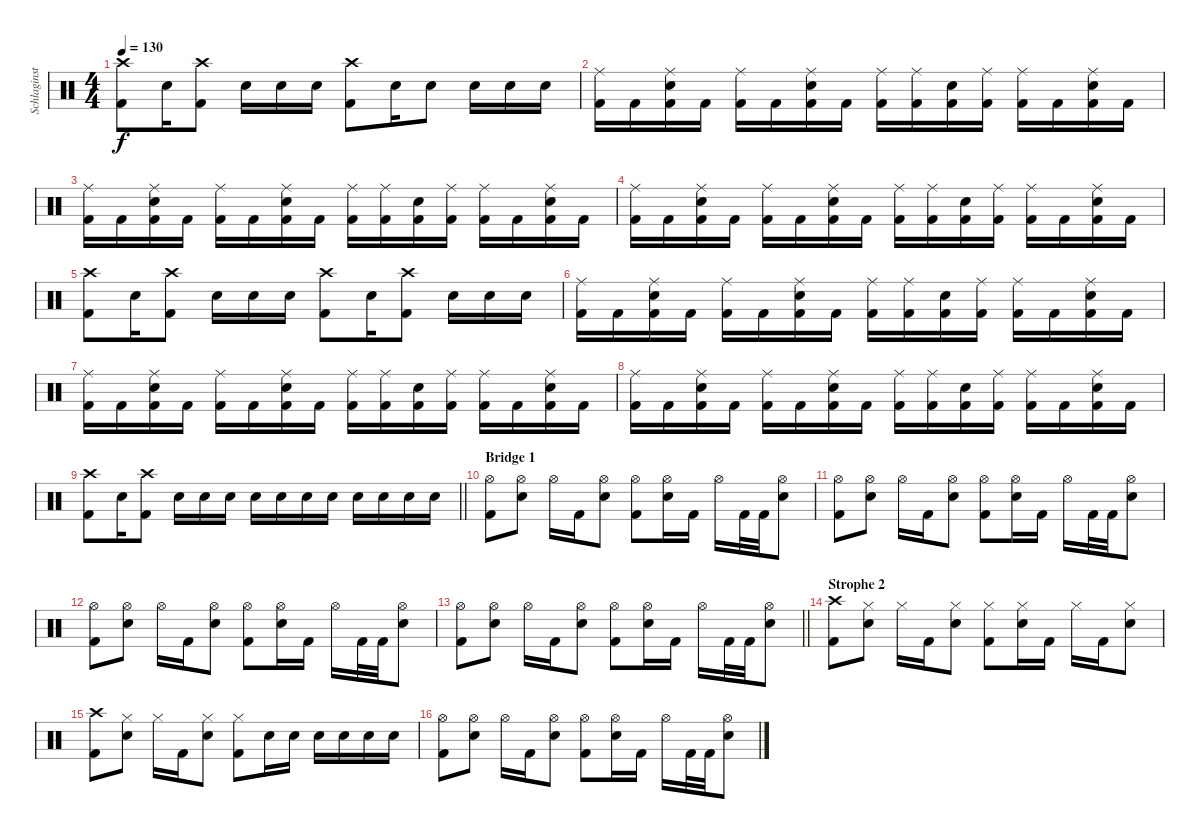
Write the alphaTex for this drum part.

\track ("Schlaginstrumente - Auswahl" "Schlaginst") {instrument percussion}
\staff {score}
\articulation defaults
\ts (4 4)
\tempo 130
\clef neutral
\ks c
("Crash high (hit)" "Kick (hit) 2").8{dy f} "Snare (hit) 2".16 ("Crash high (hit)" "Kick (hit) 2").8 "Snare (hit) 2".16 "Snare (hit) 2".16 "Snare (hit) 2".16 ("Crash high (hit)" "Kick (hit) 2").8 "Snare (hit) 2".16 "Snare (hit) 2".8 "Snare (hit) 2".16 "Snare (hit) 2".16 "Snare (hit) 2".16 |
("Ride (middle)" "Kick (hit) 2").16 "Kick (hit) 2".16 ("Ride (middle)" "Snare (hit) 2" "Kick (hit) 2").16 "Kick (hit) 2".16 ("Ride (middle)" "Kick (hit) 2").16 "Kick (hit) 2".16 ("Ride (middle)" "Snare (hit) 2" "Kick (hit) 2").16 "Kick (hit) 2".16 ("Ride (middle)" "Kick (hit) 2").16 ("Ride (middle)" "Kick (hit) 2").16 ("Snare (hit) 2" "Kick (hit) 2").16 ("Ride (middle)" "Kick (hit) 2").16 ("Ride (middle)" "Kick (hit) 2").16 "Kick (hit) 2".16 ("Ride (middle)" "Snare (hit) 2" "Kick (hit) 2").16 "Kick (hit) 2".16 |
("Ride (middle)" "Kick (hit) 2").16 "Kick (hit) 2".16 ("Ride (middle)" "Snare (hit) 2" "Kick (hit) 2").16 "Kick (hit) 2".16 ("Ride (middle)" "Kick (hit) 2").16 "Kick (hit) 2".16 ("Ride (middle)" "Snare (hit) 2" "Kick (hit) 2").16 "Kick (hit) 2".16 ("Ride (middle)" "Kick (hit) 2").16 ("Ride (middle)" "Kick (hit) 2").16 ("Snare (hit) 2" "Kick (hit) 2").16 ("Ride (middle)" "Kick (hit) 2").16 ("Ride (middle)" "Kick (hit) 2").16 "Kick (hit) 2".16 ("Ride (middle)" "Snare (hit) 2" "Kick (hit) 2").16 "Kick (hit) 2".16 |
("Ride (middle)" "Kick (hit) 2").16 "Kick (hit) 2".16 ("Ride (middle)" "Snare (hit) 2" "Kick (hit) 2").16 "Kick (hit) 2".16 ("Ride (middle)" "Kick (hit) 2").16 "Kick (hit) 2".16 ("Ride (middle)" "Snare (hit) 2" "Kick (hit) 2").16 "Kick (hit) 2".16 ("Ride (middle)" "Kick (hit) 2").16 ("Ride (middle)" "Kick (hit) 2").16 ("Snare (hit) 2" "Kick (hit) 2").16 ("Ride (middle)" "Kick (hit) 2").16 ("Ride (middle)" "Kick (hit) 2").16 "Kick (hit) 2".16 ("Ride (middle)" "Snare (hit) 2" "Kick (hit) 2").16 "Kick (hit) 2".16 |
("Crash high (hit)" "Kick (hit) 2").8 "Snare (hit) 2".16 ("Crash high (hit)" "Kick (hit) 2").8 "Snare (hit) 2".16 "Snare (hit) 2".16 "Snare (hit) 2".16 ("Crash high (hit)" "Kick (hit) 2").8 "Snare (hit) 2".16 ("Crash high (hit)" "Kick (hit) 2").8 "Snare (hit) 2".16 "Snare (hit) 2".16 "Snare (hit) 2".16 |
("Ride (middle)" "Kick (hit) 2").16 "Kick (hit) 2".16 ("Ride (middle)" "Snare (hit) 2" "Kick (hit) 2").16 "Kick (hit) 2".16 ("Ride (middle)" "Kick (hit) 2").16 "Kick (hit) 2".16 ("Ride (middle)" "Snare (hit) 2" "Kick (hit) 2").16 "Kick (hit) 2".16 ("Ride (middle)" "Kick (hit) 2").16 ("Ride (middle)" "Kick (hit) 2").16 ("Snare (hit) 2" "Kick (hit) 2").16 ("Ride (middle)" "Kick (hit) 2").16 ("Ride (middle)" "Kick (hit) 2").16 "Kick (hit) 2".16 ("Ride (middle)" "Snare (hit) 2" "Kick (hit) 2").16 "Kick (hit) 2".16 |
("Ride (middle)" "Kick (hit) 2").16 "Kick (hit) 2".16 ("Ride (middle)" "Snare (hit) 2" "Kick (hit) 2").16 "Kick (hit) 2".16 ("Ride (middle)" "Kick (hit) 2").16 "Kick (hit) 2".16 ("Ride (middle)" "Snare (hit) 2" "Kick (hit) 2").16 "Kick (hit) 2".16 ("Ride (middle)" "Kick (hit) 2").16 ("Ride (middle)" "Kick (hit) 2").16 ("Snare (hit) 2" "Kick (hit) 2").16 ("Ride (middle)" "Kick (hit) 2").16 ("Ride (middle)" "Kick (hit) 2").16 "Kick (hit) 2".16 ("Ride (middle)" "Snare (hit) 2" "Kick (hit) 2").16 "Kick (hit) 2".16 |
("Ride (middle)" "Kick (hit) 2").16 "Kick (hit) 2".16 ("Ride (middle)" "Snare (hit) 2" "Kick (hit) 2").16 "Kick (hit) 2".16 ("Ride (middle)" "Kick (hit) 2").16 "Kick (hit) 2".16 ("Ride (middle)" "Snare (hit) 2" "Kick (hit) 2").16 "Kick (hit) 2".16 ("Ride (middle)" "Kick (hit) 2").16 ("Ride (middle)" "Kick (hit) 2").16 ("Snare (hit) 2" "Kick (hit) 2").16 ("Ride (middle)" "Kick (hit) 2").16 ("Ride (middle)" "Kick (hit) 2").16 "Kick (hit) 2".16 ("Ride (middle)" "Snare (hit) 2" "Kick (hit) 2").16 "Kick (hit) 2".16 |
\barLineRight lightlight
("Crash high (hit)" "Kick (hit) 2").8 "Snare (hit) 2".16 ("Crash high (hit)" "Kick (hit) 2").8 "Snare (hit) 2".16 "Snare (hit) 2".16 "Snare (hit) 2".16 "Snare (hit) 2".16 "Snare (hit) 2".16 "Snare (hit) 2".16 "Snare (hit) 2".16 "Snare (hit) 2".16 "Snare (hit) 2".16 "Snare (hit) 2".16 "Snare (hit) 2".16 |
\section ("" "Bridge 1")
("Hi-Hat (open)" "Kick (hit) 2").8 ("Hi-Hat (open)" "Snare (hit) 2").8 "Hi-Hat (open)".16 "Kick (hit) 2".16 ("Hi-Hat (open)" "Snare (hit) 2").8 ("Hi-Hat (open)" "Kick (hit) 2").8 ("Hi-Hat (open)" "Snare (hit) 2").16 "Kick (hit) 2".16 "Hi-Hat (open)".16 "Kick (hit) 2".32 "Kick (hit) 2".32 ("Hi-Hat (open)" "Snare (hit) 2").8 |
("Hi-Hat (open)" "Kick (hit) 2").8 ("Hi-Hat (open)" "Snare (hit) 2").8 "Hi-Hat (open)".16 "Kick (hit) 2".16 ("Hi-Hat (open)" "Snare (hit) 2").8 ("Hi-Hat (open)" "Kick (hit) 2").8 ("Hi-Hat (open)" "Snare (hit) 2").16 "Kick (hit) 2".16 "Hi-Hat (open)".16 "Kick (hit) 2".32 "Kick (hit) 2".32 ("Hi-Hat (open)" "Snare (hit) 2").8 |
("Hi-Hat (open)" "Kick (hit) 2").8 ("Hi-Hat (open)" "Snare (hit) 2").8 "Hi-Hat (open)".16 "Kick (hit) 2".16 ("Hi-Hat (open)" "Snare (hit) 2").8 ("Hi-Hat (open)" "Kick (hit) 2").8 ("Hi-Hat (open)" "Snare (hit) 2").16 "Kick (hit) 2".16 "Hi-Hat (open)".16 "Kick (hit) 2".32 "Kick (hit) 2".32 ("Hi-Hat (open)" "Snare (hit) 2").8 |
\barLineRight lightlight
("Hi-Hat (open)" "Kick (hit) 2").8 ("Hi-Hat (open)" "Snare (hit) 2").8 "Hi-Hat (open)".16 "Kick (hit) 2".16 ("Hi-Hat (open)" "Snare (hit) 2").8 ("Hi-Hat (open)" "Kick (hit) 2").8 ("Hi-Hat (open)" "Snare (hit) 2").16 "Kick (hit) 2".16 "Hi-Hat (open)".16 "Kick (hit) 2".32 "Kick (hit) 2".32 ("Hi-Hat (open)" "Snare (hit) 2").8 |
\section ("" "Strophe 2")
("Crash high (hit)" "Kick (hit) 2").8 ("Hi-Hat (closed)" "Snare (hit) 2").8 "Hi-Hat (closed)".16 "Kick (hit) 2".16 ("Hi-Hat (closed)" "Snare (hit) 2").8 ("Hi-Hat (closed)" "Kick (hit) 2").8 ("Hi-Hat (closed)" "Snare (hit) 2").16 "Kick (hit) 2".16 "Hi-Hat (closed)".16 "Kick (hit) 2".16 ("Hi-Hat (closed)" "Snare (hit) 2").8 |
("Crash high (hit)" "Kick (hit) 2").8 ("Hi-Hat (closed)" "Snare (hit) 2").8 "Hi-Hat (closed)".16 "Kick (hit) 2".16 ("Hi-Hat (closed)" "Snare (hit) 2").8 ("Hi-Hat (closed)" "Kick (hit) 2").8 "Snare (hit) 2".16 "Snare (hit) 2".16 "Snare (hit) 2".16 "Snare (hit) 2".16 "Snare (hit) 2".16 "Snare (hit) 2".16 |
("Hi-Hat (open)" "Kick (hit) 2").8 ("Hi-Hat (open)" "Snare (hit) 2").8 "Hi-Hat (open)".16 "Kick (hit) 2".16 ("Hi-Hat (open)" "Snare (hit) 2").8 ("Hi-Hat (open)" "Kick (hit) 2").8 ("Hi-Hat (open)" "Snare (hit) 2").16 "Kick (hit) 2".16 "Hi-Hat (open)".16 "Kick (hit) 2".32 "Kick (hit) 2".32 ("Hi-Hat (open)" "Snare (hit) 2").8
